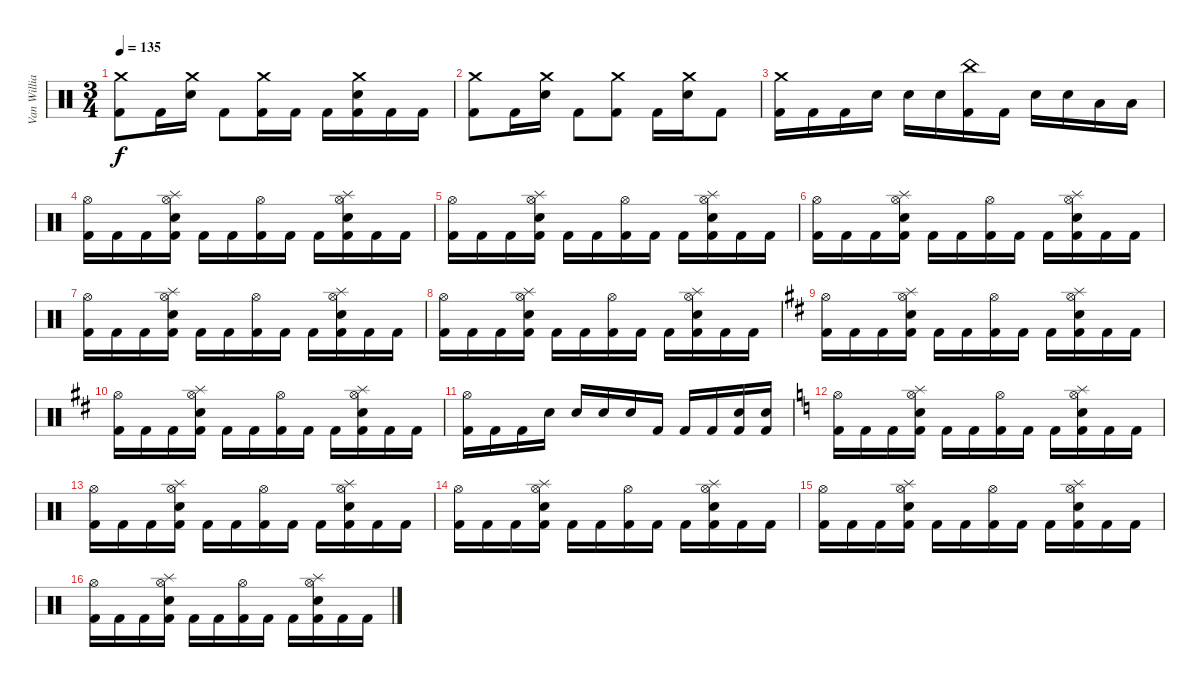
\track ("Van Williams" "Van Willia") {instrument percussion}
\staff {score}
\articulation defaults
\ts (3 4)
\tempo 135
\clef neutral
\ks c
("Crash medium (hit)" "Kick (hit) 2").8{dy f} "Kick (hit) 2".16 ("Crash medium (hit)" "Electric Snare (hit)").16 "Kick (hit) 2".8 ("Crash medium (hit)" "Kick (hit) 2").16 "Kick (hit) 2".16 "Kick (hit) 2".16 ("Crash medium (hit)" "Electric Snare (hit)" "Kick (hit) 2").16 "Kick (hit) 2".16 "Kick (hit) 2".16 |
("Crash medium (hit)" "Kick (hit) 2").8 "Kick (hit) 2".16 ("Crash medium (hit)" "Electric Snare (hit)").16 "Kick (hit) 2".8 ("Crash medium (hit)" "Kick (hit) 2").8 "Kick (hit) 2".16 ("Crash medium (hit)" "Electric Snare (hit)").16 "Kick (hit) 2".8 |
("Crash medium (hit)" "Kick (hit) 2").16 "Kick (hit) 2".16 "Kick (hit) 2".16 "Electric Snare (hit)".16 "Electric Snare (hit)".16 "Electric Snare (hit)".16 ("China (hit)" "Kick (hit) 2").16 "Kick (hit) 2".16 "Electric Snare (hit)".16 "Electric Snare (hit)".16 "Low Floor Tom (hit)".16 "Low Floor Tom (hit)".16 |
("Hi-Hat (open)" "Kick (hit) 2").16 "Kick (hit) 2".16 "Kick (hit) 2".16 ("Hi-Hat (open)" "Splash (hit)" "Electric Snare (hit)" "Kick (hit) 2").16 "Kick (hit) 2".16 "Kick (hit) 2".16 ("Hi-Hat (open)" "Kick (hit) 2").16 "Kick (hit) 2".16 "Kick (hit) 2".16 ("Hi-Hat (open)" "Splash (hit)" "Electric Snare (hit)" "Kick (hit) 2").16 "Kick (hit) 2".16 "Kick (hit) 2".16 |
("Hi-Hat (open)" "Kick (hit) 2").16 "Kick (hit) 2".16 "Kick (hit) 2".16 ("Hi-Hat (open)" "Splash (hit)" "Electric Snare (hit)" "Kick (hit) 2").16 "Kick (hit) 2".16 "Kick (hit) 2".16 ("Hi-Hat (open)" "Kick (hit) 2").16 "Kick (hit) 2".16 "Kick (hit) 2".16 ("Hi-Hat (open)" "Splash (hit)" "Electric Snare (hit)" "Kick (hit) 2").16 "Kick (hit) 2".16 "Kick (hit) 2".16 |
("Hi-Hat (open)" "Kick (hit) 2").16 "Kick (hit) 2".16 "Kick (hit) 2".16 ("Hi-Hat (open)" "Splash (hit)" "Electric Snare (hit)" "Kick (hit) 2").16 "Kick (hit) 2".16 "Kick (hit) 2".16 ("Hi-Hat (open)" "Kick (hit) 2").16 "Kick (hit) 2".16 "Kick (hit) 2".16 ("Hi-Hat (open)" "Splash (hit)" "Electric Snare (hit)" "Kick (hit) 2").16 "Kick (hit) 2".16 "Kick (hit) 2".16 |
("Hi-Hat (open)" "Kick (hit) 2").16 "Kick (hit) 2".16 "Kick (hit) 2".16 ("Hi-Hat (open)" "Splash (hit)" "Electric Snare (hit)" "Kick (hit) 2").16 "Kick (hit) 2".16 "Kick (hit) 2".16 ("Hi-Hat (open)" "Kick (hit) 2").16 "Kick (hit) 2".16 "Kick (hit) 2".16 ("Hi-Hat (open)" "Splash (hit)" "Electric Snare (hit)" "Kick (hit) 2").16 "Kick (hit) 2".16 "Kick (hit) 2".16 |
("Hi-Hat (open)" "Kick (hit) 2").16 "Kick (hit) 2".16 "Kick (hit) 2".16 ("Hi-Hat (open)" "Splash (hit)" "Electric Snare (hit)" "Kick (hit) 2").16 "Kick (hit) 2".16 "Kick (hit) 2".16 ("Hi-Hat (open)" "Kick (hit) 2").16 "Kick (hit) 2".16 "Kick (hit) 2".16 ("Hi-Hat (open)" "Splash (hit)" "Electric Snare (hit)" "Kick (hit) 2").16 "Kick (hit) 2".16 "Kick (hit) 2".16 |
\ks d
("Hi-Hat (open)" "Kick (hit) 2").16 "Kick (hit) 2".16 "Kick (hit) 2".16 ("Hi-Hat (open)" "Splash (hit)" "Electric Snare (hit)" "Kick (hit) 2").16 "Kick (hit) 2".16 "Kick (hit) 2".16 ("Hi-Hat (open)" "Kick (hit) 2").16 "Kick (hit) 2".16 "Kick (hit) 2".16 ("Hi-Hat (open)" "Splash (hit)" "Electric Snare (hit)" "Kick (hit) 2").16 "Kick (hit) 2".16 "Kick (hit) 2".16 |
("Hi-Hat (open)" "Kick (hit) 2").16 "Kick (hit) 2".16 "Kick (hit) 2".16 ("Hi-Hat (open)" "Splash (hit)" "Electric Snare (hit)" "Kick (hit) 2").16 "Kick (hit) 2".16 "Kick (hit) 2".16 ("Hi-Hat (open)" "Kick (hit) 2").16 "Kick (hit) 2".16 "Kick (hit) 2".16 ("Hi-Hat (open)" "Splash (hit)" "Electric Snare (hit)" "Kick (hit) 2").16 "Kick (hit) 2".16 "Kick (hit) 2".16 |
("Hi-Hat (open)" "Kick (hit) 2").16 "Kick (hit) 2".16 "Kick (hit) 2".16 "Electric Snare (hit)".16 "Electric Snare (hit)".16 "Electric Snare (hit)".16 "Electric Snare (hit)".16 "Kick (hit) 2".16 "Kick (hit) 2".16 "Kick (hit) 2".16 ("Electric Snare (hit)" "Kick (hit) 2").16 ("Electric Snare (hit)" "Kick (hit) 2").16 |
\ks c
("Hi-Hat (open)" "Kick (hit) 2").16 "Kick (hit) 2".16 "Kick (hit) 2".16 ("Hi-Hat (open)" "Splash (hit)" "Electric Snare (hit)" "Kick (hit) 2").16 "Kick (hit) 2".16 "Kick (hit) 2".16 ("Hi-Hat (open)" "Kick (hit) 2").16 "Kick (hit) 2".16 "Kick (hit) 2".16 ("Hi-Hat (open)" "Splash (hit)" "Electric Snare (hit)" "Kick (hit) 2").16 "Kick (hit) 2".16 "Kick (hit) 2".16 |
("Hi-Hat (open)" "Kick (hit) 2").16 "Kick (hit) 2".16 "Kick (hit) 2".16 ("Hi-Hat (open)" "Splash (hit)" "Electric Snare (hit)" "Kick (hit) 2").16 "Kick (hit) 2".16 "Kick (hit) 2".16 ("Hi-Hat (open)" "Kick (hit) 2").16 "Kick (hit) 2".16 "Kick (hit) 2".16 ("Hi-Hat (open)" "Splash (hit)" "Electric Snare (hit)" "Kick (hit) 2").16 "Kick (hit) 2".16 "Kick (hit) 2".16 |
("Hi-Hat (open)" "Kick (hit) 2").16 "Kick (hit) 2".16 "Kick (hit) 2".16 ("Hi-Hat (open)" "Splash (hit)" "Electric Snare (hit)" "Kick (hit) 2").16 "Kick (hit) 2".16 "Kick (hit) 2".16 ("Hi-Hat (open)" "Kick (hit) 2").16 "Kick (hit) 2".16 "Kick (hit) 2".16 ("Hi-Hat (open)" "Splash (hit)" "Electric Snare (hit)" "Kick (hit) 2").16 "Kick (hit) 2".16 "Kick (hit) 2".16 |
("Hi-Hat (open)" "Kick (hit) 2").16 "Kick (hit) 2".16 "Kick (hit) 2".16 ("Hi-Hat (open)" "Splash (hit)" "Electric Snare (hit)" "Kick (hit) 2").16 "Kick (hit) 2".16 "Kick (hit) 2".16 ("Hi-Hat (open)" "Kick (hit) 2").16 "Kick (hit) 2".16 "Kick (hit) 2".16 ("Hi-Hat (open)" "Splash (hit)" "Electric Snare (hit)" "Kick (hit) 2").16 "Kick (hit) 2".16 "Kick (hit) 2".16 |
("Hi-Hat (open)" "Kick (hit) 2").16 "Kick (hit) 2".16 "Kick (hit) 2".16 ("Hi-Hat (open)" "Splash (hit)" "Electric Snare (hit)" "Kick (hit) 2").16 "Kick (hit) 2".16 "Kick (hit) 2".16 ("Hi-Hat (open)" "Kick (hit) 2").16 "Kick (hit) 2".16 "Kick (hit) 2".16 ("Hi-Hat (open)" "Splash (hit)" "Electric Snare (hit)" "Kick (hit) 2").16 "Kick (hit) 2".16 "Kick (hit) 2".16
